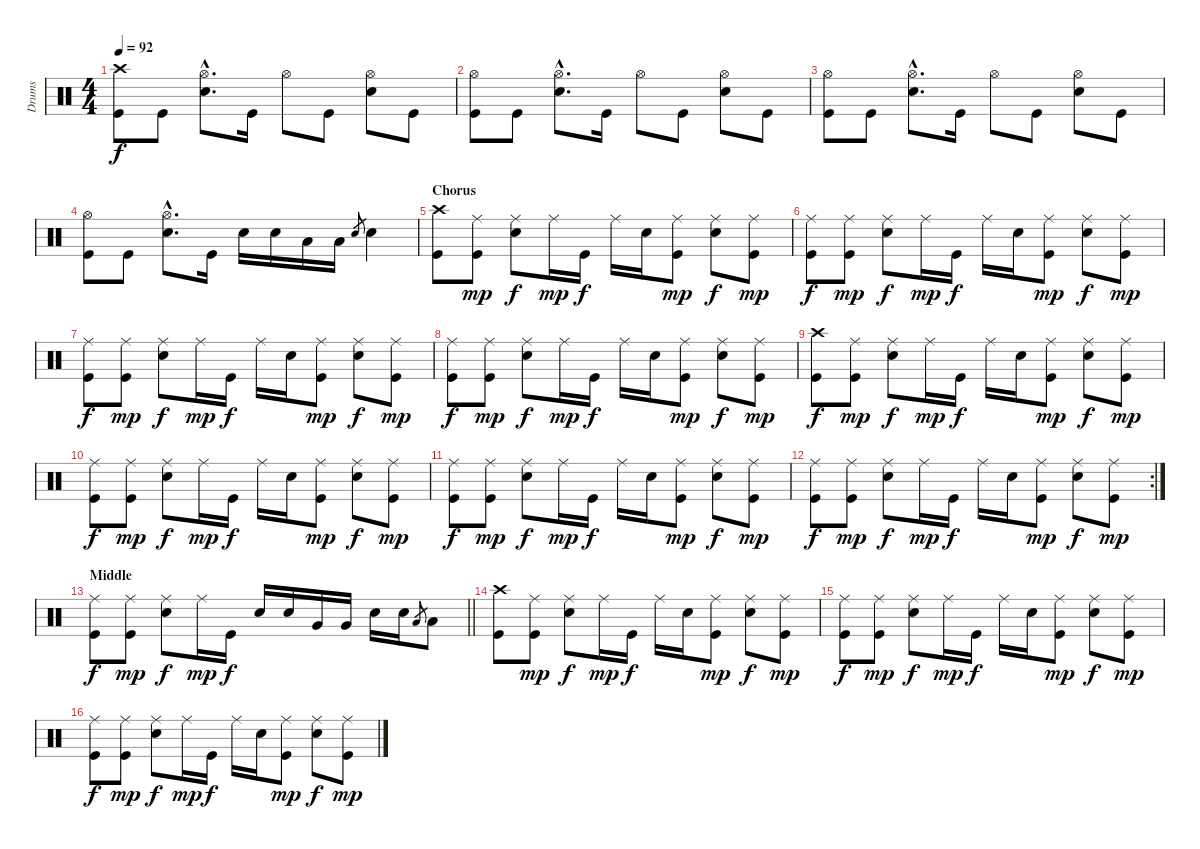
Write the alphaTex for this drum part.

\track ("Drums" "Drums") {instrument percussion}
\staff {score}
\articulation defaults
\ts (4 4)
\tempo 92
\clef neutral
\ks c
("Crash high (hit)" "Kick (hit)").8{dy f} "Kick (hit)".8 ("Hi-Hat (open)"{hac} "Snare (hit) 2"{hac}).8{d} "Kick (hit)".16 "Hi-Hat (open)".8 "Kick (hit)".8 ("Hi-Hat (open)" "Snare (hit) 2").8 "Kick (hit)".8 |
("Hi-Hat (open)" "Kick (hit)").8 "Kick (hit)".8 ("Hi-Hat (open)"{hac} "Snare (hit) 2"{hac}).8{d} "Kick (hit)".16 "Hi-Hat (open)".8 "Kick (hit)".8 ("Hi-Hat (open)" "Snare (hit) 2").8 "Kick (hit)".8 |
("Hi-Hat (open)" "Kick (hit)").8 "Kick (hit)".8 ("Hi-Hat (open)"{hac} "Snare (hit) 2"{hac}).8{d} "Kick (hit)".16 "Hi-Hat (open)".8 "Kick (hit)".8 ("Hi-Hat (open)" "Snare (hit) 2").8 "Kick (hit)".8 |
("Hi-Hat (open)" "Kick (hit)").8 "Kick (hit)".8 ("Hi-Hat (open)"{hac} "Snare (hit) 2"{hac}).8{d} "Kick (hit)".16 "Snare (hit) 2".16 "Snare (hit) 2".16 "Low Floor Tom (hit)".16 "Low Floor Tom (hit)".16 "Snare (hit) 2".8{gr} "Snare (hit) 2".4 |
\section ("" "Chorus")
("Crash high (hit)" "Kick (hit)").8 ("Ride (middle)" "Kick (hit)").8{dy mp} ("Ride (middle)" "Snare (hit) 2").8{dy f} "Ride (middle)".16{dy mp} "Kick (hit)".16{dy f} "Ride (middle)".16 "Snare (hit) 2".16 ("Ride (middle)" "Kick (hit)").8{dy mp} ("Ride (middle)" "Snare (hit) 2").8{dy f} ("Ride (middle)" "Kick (hit)").8{dy mp} |
("Ride (middle)" "Kick (hit)").8{dy f} ("Ride (middle)" "Kick (hit)").8{dy mp} ("Ride (middle)" "Snare (hit) 2").8{dy f} "Ride (middle)".16{dy mp} "Kick (hit)".16{dy f} "Ride (middle)".16 "Snare (hit) 2".16 ("Ride (middle)" "Kick (hit)").8{dy mp} ("Ride (middle)" "Snare (hit) 2").8{dy f} ("Ride (middle)" "Kick (hit)").8{dy mp} |
("Ride (middle)" "Kick (hit)").8{dy f} ("Ride (middle)" "Kick (hit)").8{dy mp} ("Ride (middle)" "Snare (hit) 2").8{dy f} "Ride (middle)".16{dy mp} "Kick (hit)".16{dy f} "Ride (middle)".16 "Snare (hit) 2".16 ("Ride (middle)" "Kick (hit)").8{dy mp} ("Ride (middle)" "Snare (hit) 2").8{dy f} ("Ride (middle)" "Kick (hit)").8{dy mp} |
("Ride (middle)" "Kick (hit)").8{dy f} ("Ride (middle)" "Kick (hit)").8{dy mp} ("Ride (middle)" "Snare (hit) 2").8{dy f} "Ride (middle)".16{dy mp} "Kick (hit)".16{dy f} "Ride (middle)".16 "Snare (hit) 2".16 ("Ride (middle)" "Kick (hit)").8{dy mp} ("Ride (middle)" "Snare (hit) 2").8{dy f} ("Ride (middle)" "Kick (hit)").8{dy mp} |
("Crash high (hit)" "Kick (hit)").8{dy f} ("Ride (middle)" "Kick (hit)").8{dy mp} ("Ride (middle)" "Snare (hit) 2").8{dy f} "Ride (middle)".16{dy mp} "Kick (hit)".16{dy f} "Ride (middle)".16 "Snare (hit) 2".16 ("Ride (middle)" "Kick (hit)").8{dy mp} ("Ride (middle)" "Snare (hit) 2").8{dy f} ("Ride (middle)" "Kick (hit)").8{dy mp} |
("Ride (middle)" "Kick (hit)").8{dy f} ("Ride (middle)" "Kick (hit)").8{dy mp} ("Ride (middle)" "Snare (hit) 2").8{dy f} "Ride (middle)".16{dy mp} "Kick (hit)".16{dy f} "Ride (middle)".16 "Snare (hit) 2".16 ("Ride (middle)" "Kick (hit)").8{dy mp} ("Ride (middle)" "Snare (hit) 2").8{dy f} ("Ride (middle)" "Kick (hit)").8{dy mp} |
("Ride (middle)" "Kick (hit)").8{dy f} ("Ride (middle)" "Kick (hit)").8{dy mp} ("Ride (middle)" "Snare (hit) 2").8{dy f} "Ride (middle)".16{dy mp} "Kick (hit)".16{dy f} "Ride (middle)".16 "Snare (hit) 2".16 ("Ride (middle)" "Kick (hit)").8{dy mp} ("Ride (middle)" "Snare (hit) 2").8{dy f} ("Ride (middle)" "Kick (hit)").8{dy mp} |
\rc 2
("Ride (middle)" "Kick (hit)").8{dy f} ("Ride (middle)" "Kick (hit)").8{dy mp} ("Ride (middle)" "Snare (hit) 2").8{dy f} "Ride (middle)".16{dy mp} "Kick (hit)".16{dy f} "Ride (middle)".16 "Snare (hit) 2".16 ("Ride (middle)" "Kick (hit)").8{dy mp} ("Ride (middle)" "Snare (hit) 2").8{dy f} ("Ride (middle)" "Kick (hit)").8{dy mp} |
\section ("" "Middle")
\barLineRight lightlight
("Ride (middle)" "Kick (hit)").8{dy f} ("Ride (middle)" "Kick (hit)").8{dy mp} ("Ride (middle)" "Snare (hit) 2").8{dy f} "Ride (middle)".16{dy mp} "Kick (hit)".16{dy f} "Snare (hit) 2".16 "Snare (hit) 2".16 "Very Low Tom (hit)".16 "Very Low Tom (hit)".16 "Snare (hit) 2".16 "Snare (hit) 2".16 "Low Floor Tom (hit)".8{gr} "Low Floor Tom (hit)".8 |
("Crash high (hit)" "Kick (hit)").8 ("Ride (middle)" "Kick (hit)").8{dy mp} ("Ride (middle)" "Snare (hit) 2").8{dy f} "Ride (middle)".16{dy mp} "Kick (hit)".16{dy f} "Ride (middle)".16 "Snare (hit) 2".16 ("Ride (middle)" "Kick (hit)").8{dy mp} ("Ride (middle)" "Snare (hit) 2").8{dy f} ("Ride (middle)" "Kick (hit)").8{dy mp} |
("Ride (middle)" "Kick (hit)").8{dy f} ("Ride (middle)" "Kick (hit)").8{dy mp} ("Ride (middle)" "Snare (hit) 2").8{dy f} "Ride (middle)".16{dy mp} "Kick (hit)".16{dy f} "Ride (middle)".16 "Snare (hit) 2".16 ("Ride (middle)" "Kick (hit)").8{dy mp} ("Ride (middle)" "Snare (hit) 2").8{dy f} ("Ride (middle)" "Kick (hit)").8{dy mp} |
("Ride (middle)" "Kick (hit)").8{dy f} ("Ride (middle)" "Kick (hit)").8{dy mp} ("Ride (middle)" "Snare (hit) 2").8{dy f} "Ride (middle)".16{dy mp} "Kick (hit)".16{dy f} "Ride (middle)".16 "Snare (hit) 2".16 ("Ride (middle)" "Kick (hit)").8{dy mp} ("Ride (middle)" "Snare (hit) 2").8{dy f} ("Ride (middle)" "Kick (hit)").8{dy mp}
